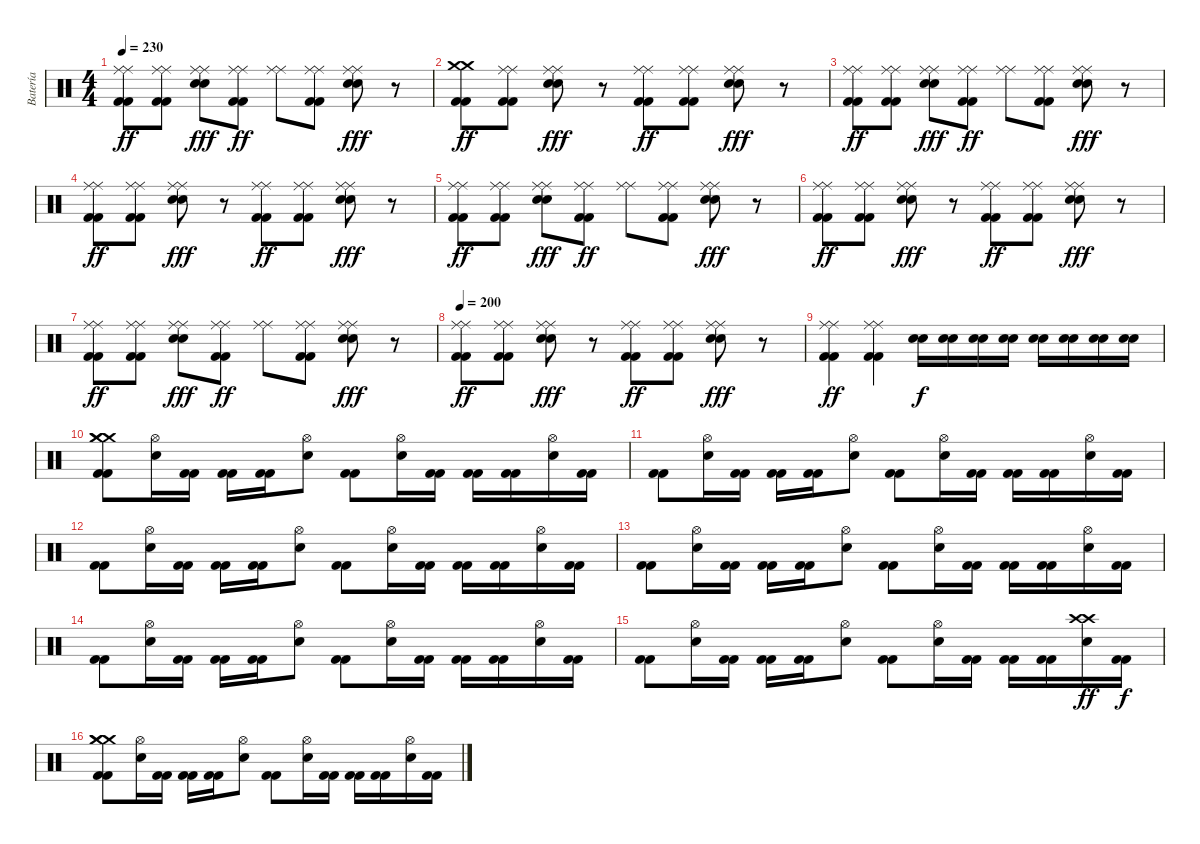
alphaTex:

\track ("Batería" "Batería") {instrument percussion}
\staff {score}
\articulation defaults
\ts (4 4)
\tempo 230
\clef neutral
\ks c
("Ride (middle)" "Ride (middle)" "Kick (hit) 2" "Kick (hit) 2").8{dy ff} ("Ride (middle)" "Ride (middle)" "Kick (hit) 2" "Kick (hit) 2").8 ("Ride (middle)" "Ride (middle)" "Electric Snare (hit)" "Electric Snare (hit)").8{dy fff} ("Ride (middle)" "Ride (middle)" "Kick (hit) 2" "Kick (hit) 2").8{dy ff} ("Ride (middle)" "Ride (middle)").8 ("Ride (middle)" "Ride (middle)" "Kick (hit) 2" "Kick (hit) 2").8 ("Ride (middle)" "Ride (middle)" "Electric Snare (hit)" "Electric Snare (hit)").8{dy fff} r.8 |
("Crash medium (hit)" "Crash medium (hit)" "Kick (hit) 2" "Kick (hit) 2").8{dy ff} ("Ride (middle)" "Ride (middle)" "Kick (hit) 2" "Kick (hit) 2").8 ("Ride (middle)" "Ride (middle)" "Electric Snare (hit)" "Electric Snare (hit)").8{dy fff} r.8 ("Ride (middle)" "Ride (middle)" "Kick (hit) 2" "Kick (hit) 2").8{dy ff} ("Ride (middle)" "Ride (middle)" "Kick (hit) 2" "Kick (hit) 2").8 ("Ride (middle)" "Ride (middle)" "Electric Snare (hit)" "Electric Snare (hit)").8{dy fff} r.8 |
("Ride (middle)" "Ride (middle)" "Kick (hit) 2" "Kick (hit) 2").8{dy ff} ("Ride (middle)" "Ride (middle)" "Kick (hit) 2" "Kick (hit) 2").8 ("Ride (middle)" "Ride (middle)" "Electric Snare (hit)" "Electric Snare (hit)").8{dy fff} ("Ride (middle)" "Ride (middle)" "Kick (hit) 2" "Kick (hit) 2").8{dy ff} ("Ride (middle)" "Ride (middle)").8 ("Ride (middle)" "Ride (middle)" "Kick (hit) 2" "Kick (hit) 2").8 ("Ride (middle)" "Ride (middle)" "Electric Snare (hit)" "Electric Snare (hit)").8{dy fff} r.8 |
("Ride (middle)" "Ride (middle)" "Kick (hit) 2" "Kick (hit) 2").8{dy ff} ("Ride (middle)" "Ride (middle)" "Kick (hit) 2" "Kick (hit) 2").8 ("Ride (middle)" "Ride (middle)" "Electric Snare (hit)" "Electric Snare (hit)").8{dy fff} r.8 ("Ride (middle)" "Ride (middle)" "Kick (hit) 2" "Kick (hit) 2").8{dy ff} ("Ride (middle)" "Ride (middle)" "Kick (hit) 2" "Kick (hit) 2").8 ("Ride (middle)" "Ride (middle)" "Electric Snare (hit)" "Electric Snare (hit)").8{dy fff} r.8 |
("Ride (middle)" "Ride (middle)" "Kick (hit) 2" "Kick (hit) 2").8{dy ff} ("Ride (middle)" "Ride (middle)" "Kick (hit) 2" "Kick (hit) 2").8 ("Ride (middle)" "Ride (middle)" "Electric Snare (hit)" "Electric Snare (hit)").8{dy fff} ("Ride (middle)" "Ride (middle)" "Kick (hit) 2" "Kick (hit) 2").8{dy ff} ("Ride (middle)" "Ride (middle)").8 ("Ride (middle)" "Ride (middle)" "Kick (hit) 2" "Kick (hit) 2").8 ("Ride (middle)" "Ride (middle)" "Electric Snare (hit)" "Electric Snare (hit)").8{dy fff} r.8 |
("Ride (middle)" "Ride (middle)" "Kick (hit) 2" "Kick (hit) 2").8{dy ff} ("Ride (middle)" "Ride (middle)" "Kick (hit) 2" "Kick (hit) 2").8 ("Ride (middle)" "Ride (middle)" "Electric Snare (hit)" "Electric Snare (hit)").8{dy fff} r.8 ("Ride (middle)" "Ride (middle)" "Kick (hit) 2" "Kick (hit) 2").8{dy ff} ("Ride (middle)" "Ride (middle)" "Kick (hit) 2" "Kick (hit) 2").8 ("Ride (middle)" "Ride (middle)" "Electric Snare (hit)" "Electric Snare (hit)").8{dy fff} r.8 |
("Ride (middle)" "Ride (middle)" "Kick (hit) 2" "Kick (hit) 2").8{dy ff} ("Ride (middle)" "Ride (middle)" "Kick (hit) 2" "Kick (hit) 2").8 ("Ride (middle)" "Ride (middle)" "Electric Snare (hit)" "Electric Snare (hit)").8{dy fff} ("Ride (middle)" "Ride (middle)" "Kick (hit) 2" "Kick (hit) 2").8{dy ff} ("Ride (middle)" "Ride (middle)").8 ("Ride (middle)" "Ride (middle)" "Kick (hit) 2" "Kick (hit) 2").8 ("Ride (middle)" "Ride (middle)" "Electric Snare (hit)" "Electric Snare (hit)").8{dy fff} r.8 |
\tempo 200
("Ride (middle)" "Ride (middle)" "Kick (hit) 2" "Kick (hit) 2").8{dy ff} ("Ride (middle)" "Ride (middle)" "Kick (hit) 2" "Kick (hit) 2").8 ("Ride (middle)" "Ride (middle)" "Electric Snare (hit)" "Electric Snare (hit)").8{dy fff} r.8 ("Ride (middle)" "Ride (middle)" "Kick (hit) 2" "Kick (hit) 2").8{dy ff} ("Ride (middle)" "Ride (middle)" "Kick (hit) 2" "Kick (hit) 2").8 ("Ride (middle)" "Ride (middle)" "Electric Snare (hit)" "Electric Snare (hit)").8{dy fff} r.8 |
("Ride (middle)" "Ride (middle)" "Kick (hit) 2" "Kick (hit) 2").4{dy ff} ("Ride (middle)" "Ride (middle)" "Kick (hit) 2" "Kick (hit) 2").4 ("Electric Snare (hit)" "Electric Snare (hit)").16{dy f} ("Electric Snare (hit)" "Electric Snare (hit)").16 ("Electric Snare (hit)" "Electric Snare (hit)").16 ("Electric Snare (hit)" "Electric Snare (hit)").16 ("Electric Snare (hit)" "Electric Snare (hit)").16 ("Electric Snare (hit)" "Electric Snare (hit)").16 ("Electric Snare (hit)" "Electric Snare (hit)").16 ("Electric Snare (hit)" "Electric Snare (hit)").16 |
("Crash medium (hit)" "Crash medium (hit)" "Crash medium (hit)" "Kick (hit) 2" "Kick (hit) 2").8 ("Hi-Hat (open)" "Electric Snare (hit)").16 ("Kick (hit) 2" "Kick (hit) 2").16 ("Kick (hit) 2" "Kick (hit) 2").16 ("Kick (hit) 2" "Kick (hit) 2").16 ("Hi-Hat (open)" "Electric Snare (hit)").8 ("Kick (hit) 2" "Kick (hit) 2").8 ("Hi-Hat (open)" "Electric Snare (hit)").16 ("Kick (hit) 2" "Kick (hit) 2").16 ("Kick (hit) 2" "Kick (hit) 2").16 ("Kick (hit) 2" "Kick (hit) 2").16 ("Hi-Hat (open)" "Electric Snare (hit)").16 ("Kick (hit) 2" "Kick (hit) 2").16 |
("Kick (hit) 2" "Kick (hit) 2").8 ("Hi-Hat (open)" "Electric Snare (hit)").16 ("Kick (hit) 2" "Kick (hit) 2").16 ("Kick (hit) 2" "Kick (hit) 2").16 ("Kick (hit) 2" "Kick (hit) 2").16 ("Hi-Hat (open)" "Electric Snare (hit)").8 ("Kick (hit) 2" "Kick (hit) 2").8 ("Hi-Hat (open)" "Electric Snare (hit)").16 ("Kick (hit) 2" "Kick (hit) 2").16 ("Kick (hit) 2" "Kick (hit) 2").16 ("Kick (hit) 2" "Kick (hit) 2").16 ("Hi-Hat (open)" "Electric Snare (hit)").16 ("Kick (hit) 2" "Kick (hit) 2").16 |
("Kick (hit) 2" "Kick (hit) 2").8 ("Hi-Hat (open)" "Electric Snare (hit)").16 ("Kick (hit) 2" "Kick (hit) 2").16 ("Kick (hit) 2" "Kick (hit) 2").16 ("Kick (hit) 2" "Kick (hit) 2").16 ("Hi-Hat (open)" "Electric Snare (hit)").8 ("Kick (hit) 2" "Kick (hit) 2").8 ("Hi-Hat (open)" "Electric Snare (hit)").16 ("Kick (hit) 2" "Kick (hit) 2").16 ("Kick (hit) 2" "Kick (hit) 2").16 ("Kick (hit) 2" "Kick (hit) 2").16 ("Hi-Hat (open)" "Electric Snare (hit)").16 ("Kick (hit) 2" "Kick (hit) 2").16 |
("Kick (hit) 2" "Kick (hit) 2").8 ("Hi-Hat (open)" "Electric Snare (hit)").16 ("Kick (hit) 2" "Kick (hit) 2").16 ("Kick (hit) 2" "Kick (hit) 2").16 ("Kick (hit) 2" "Kick (hit) 2").16 ("Hi-Hat (open)" "Electric Snare (hit)").8 ("Kick (hit) 2" "Kick (hit) 2").8 ("Hi-Hat (open)" "Electric Snare (hit)").16 ("Kick (hit) 2" "Kick (hit) 2").16 ("Kick (hit) 2" "Kick (hit) 2").16 ("Kick (hit) 2" "Kick (hit) 2").16 ("Hi-Hat (open)" "Electric Snare (hit)").16 ("Kick (hit) 2" "Kick (hit) 2").16 |
("Kick (hit) 2" "Kick (hit) 2").8 ("Hi-Hat (open)" "Electric Snare (hit)").16 ("Kick (hit) 2" "Kick (hit) 2").16 ("Kick (hit) 2" "Kick (hit) 2").16 ("Kick (hit) 2" "Kick (hit) 2").16 ("Hi-Hat (open)" "Electric Snare (hit)").8 ("Kick (hit) 2" "Kick (hit) 2").8 ("Hi-Hat (open)" "Electric Snare (hit)").16 ("Kick (hit) 2" "Kick (hit) 2").16 ("Kick (hit) 2" "Kick (hit) 2").16 ("Kick (hit) 2" "Kick (hit) 2").16 ("Hi-Hat (open)" "Electric Snare (hit)").16 ("Kick (hit) 2" "Kick (hit) 2").16 |
("Kick (hit) 2" "Kick (hit) 2").8 ("Hi-Hat (open)" "Electric Snare (hit)").16 ("Kick (hit) 2" "Kick (hit) 2").16 ("Kick (hit) 2" "Kick (hit) 2").16 ("Kick (hit) 2" "Kick (hit) 2").16 ("Hi-Hat (open)" "Electric Snare (hit)").8 ("Kick (hit) 2" "Kick (hit) 2").8 ("Hi-Hat (open)" "Electric Snare (hit)").16 ("Kick (hit) 2" "Kick (hit) 2").16 ("Kick (hit) 2" "Kick (hit) 2").16 ("Kick (hit) 2" "Kick (hit) 2").16 ("Crash high (hit)" "Crash high (hit)" "Electric Snare (hit)").16{dy ff} ("Kick (hit) 2" "Kick (hit) 2").16{dy f} |
("Crash medium (hit)" "Crash medium (hit)" "Crash medium (hit)" "Kick (hit) 2" "Kick (hit) 2").8 ("Hi-Hat (open)" "Electric Snare (hit)").16 ("Kick (hit) 2" "Kick (hit) 2").16 ("Kick (hit) 2" "Kick (hit) 2").16 ("Kick (hit) 2" "Kick (hit) 2").16 ("Hi-Hat (open)" "Electric Snare (hit)").8 ("Kick (hit) 2" "Kick (hit) 2").8 ("Hi-Hat (open)" "Electric Snare (hit)").16 ("Kick (hit) 2" "Kick (hit) 2").16 ("Kick (hit) 2" "Kick (hit) 2").16 ("Kick (hit) 2" "Kick (hit) 2").16 ("Hi-Hat (open)" "Electric Snare (hit)").16 ("Kick (hit) 2" "Kick (hit) 2").16
